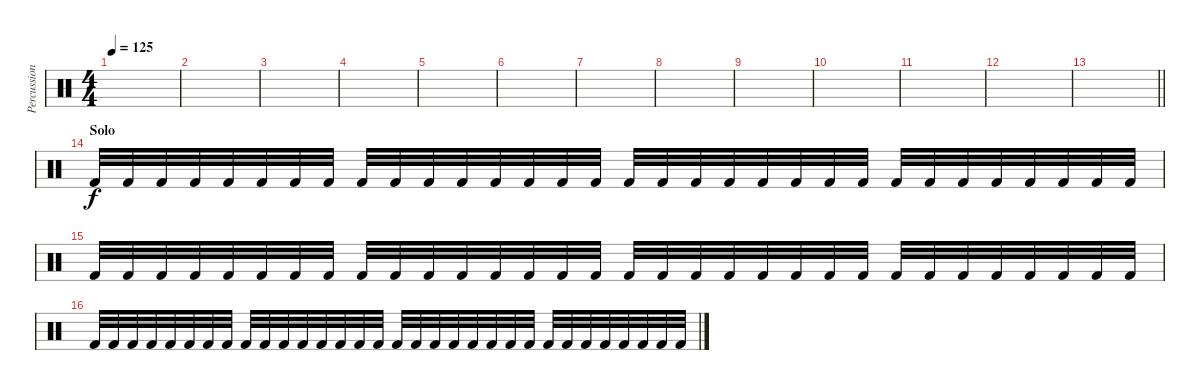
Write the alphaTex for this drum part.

\track ("Percussion" "Percussion") {instrument percussion}
\staff {score}
\articulation defaults
\ts (4 4)
\tempo 125
\clef neutral
\ks c
|
|
|
|
|
|
|
|
|
|
|
|
\barLineRight lightlight
|
\section ("" "Solo ")
"Kick (hit) 2".32 "Kick (hit) 2".32 "Kick (hit) 2".32 "Kick (hit) 2".32 "Kick (hit) 2".32 "Kick (hit) 2".32 "Kick (hit) 2".32 "Kick (hit) 2".32 "Kick (hit) 2".32 "Kick (hit) 2".32 "Kick (hit) 2".32 "Kick (hit) 2".32 "Kick (hit) 2".32 "Kick (hit) 2".32 "Kick (hit) 2".32 "Kick (hit) 2".32 "Kick (hit) 2".32 "Kick (hit) 2".32 "Kick (hit) 2".32 "Kick (hit) 2".32 "Kick (hit) 2".32 "Kick (hit) 2".32 "Kick (hit) 2".32 "Kick (hit) 2".32 "Kick (hit) 2".32 "Kick (hit) 2".32 "Kick (hit) 2".32 "Kick (hit) 2".32 "Kick (hit) 2".32 "Kick (hit) 2".32 "Kick (hit) 2".32 "Kick (hit) 2".32 |
"Kick (hit) 2".32 "Kick (hit) 2".32 "Kick (hit) 2".32 "Kick (hit) 2".32 "Kick (hit) 2".32 "Kick (hit) 2".32 "Kick (hit) 2".32 "Kick (hit) 2".32 "Kick (hit) 2".32 "Kick (hit) 2".32 "Kick (hit) 2".32 "Kick (hit) 2".32 "Kick (hit) 2".32 "Kick (hit) 2".32 "Kick (hit) 2".32 "Kick (hit) 2".32 "Kick (hit) 2".32 "Kick (hit) 2".32 "Kick (hit) 2".32 "Kick (hit) 2".32 "Kick (hit) 2".32 "Kick (hit) 2".32 "Kick (hit) 2".32 "Kick (hit) 2".32 "Kick (hit) 2".32 "Kick (hit) 2".32 "Kick (hit) 2".32 "Kick (hit) 2".32 "Kick (hit) 2".32 "Kick (hit) 2".32 "Kick (hit) 2".32 "Kick (hit) 2".32 |
"Kick (hit) 2".32 "Kick (hit) 2".32 "Kick (hit) 2".32 "Kick (hit) 2".32 "Kick (hit) 2".32 "Kick (hit) 2".32 "Kick (hit) 2".32 "Kick (hit) 2".32 "Kick (hit) 2".32 "Kick (hit) 2".32 "Kick (hit) 2".32 "Kick (hit) 2".32 "Kick (hit) 2".32 "Kick (hit) 2".32 "Kick (hit) 2".32 "Kick (hit) 2".32 "Kick (hit) 2".32 "Kick (hit) 2".32 "Kick (hit) 2".32 "Kick (hit) 2".32 "Kick (hit) 2".32 "Kick (hit) 2".32 "Kick (hit) 2".32 "Kick (hit) 2".32 "Kick (hit) 2".32 "Kick (hit) 2".32 "Kick (hit) 2".32 "Kick (hit) 2".32 "Kick (hit) 2".32 "Kick (hit) 2".32 "Kick (hit) 2".32 "Kick (hit) 2".32
